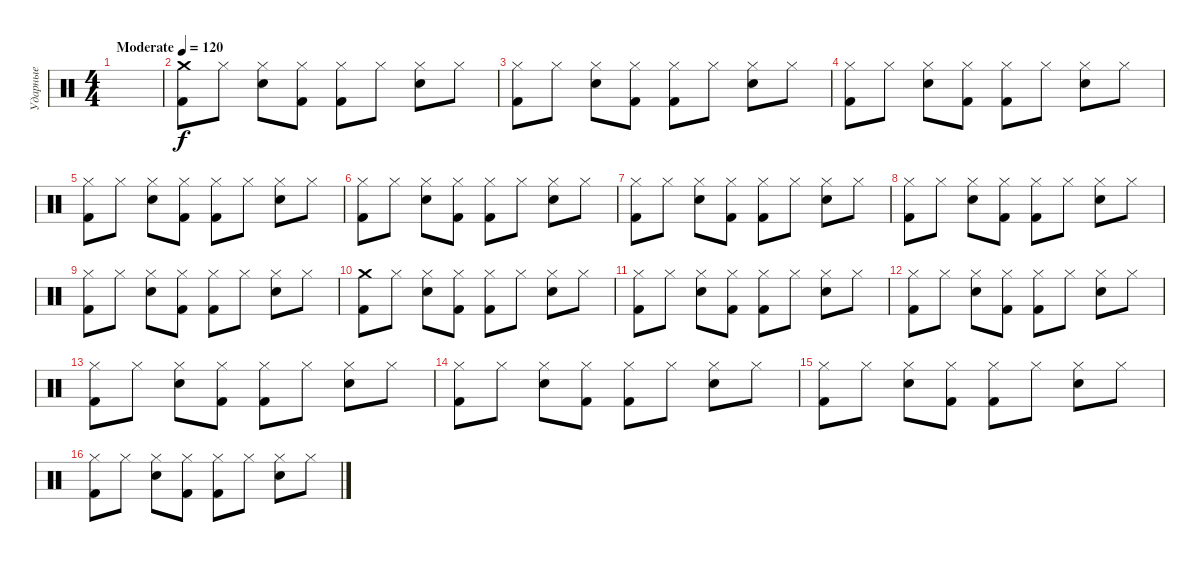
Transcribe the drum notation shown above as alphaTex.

\track ("Ударные" "Ударные") {instrument percussion}
\staff {score}
\articulation defaults
\ts (4 4)
\tempo (120 "Moderate")
\clef neutral
\ks c
|
("Crash medium (hit)" "Kick (hit) 2").8 "Hi-Hat (closed)".8 ("Hi-Hat (closed)" "Snare (hit) 2").8 ("Hi-Hat (closed)" "Kick (hit) 2").8 ("Hi-Hat (closed)" "Kick (hit) 2").8 "Hi-Hat (closed)".8 ("Hi-Hat (closed)" "Snare (hit) 2").8 "Hi-Hat (closed)".8 |
("Hi-Hat (closed)" "Kick (hit) 2").8 "Hi-Hat (closed)".8 ("Hi-Hat (closed)" "Snare (hit) 2").8 ("Hi-Hat (closed)" "Kick (hit) 2").8 ("Hi-Hat (closed)" "Kick (hit) 2").8 "Hi-Hat (closed)".8 ("Hi-Hat (closed)" "Snare (hit) 2").8 "Hi-Hat (closed)".8 |
("Hi-Hat (closed)" "Kick (hit) 2").8 "Hi-Hat (closed)".8 ("Hi-Hat (closed)" "Snare (hit) 2").8 ("Hi-Hat (closed)" "Kick (hit) 2").8 ("Hi-Hat (closed)" "Kick (hit) 2").8 "Hi-Hat (closed)".8 ("Hi-Hat (closed)" "Snare (hit) 2").8 "Hi-Hat (closed)".8 |
("Hi-Hat (closed)" "Kick (hit) 2").8 "Hi-Hat (closed)".8 ("Hi-Hat (closed)" "Snare (hit) 2").8 ("Hi-Hat (closed)" "Kick (hit) 2").8 ("Hi-Hat (closed)" "Kick (hit) 2").8 "Hi-Hat (closed)".8 ("Hi-Hat (closed)" "Snare (hit) 2").8 "Hi-Hat (closed)".8 |
("Hi-Hat (closed)" "Kick (hit) 2").8 "Hi-Hat (closed)".8 ("Hi-Hat (closed)" "Snare (hit) 2").8 ("Hi-Hat (closed)" "Kick (hit) 2").8 ("Hi-Hat (closed)" "Kick (hit) 2").8 "Hi-Hat (closed)".8 ("Hi-Hat (closed)" "Snare (hit) 2").8 "Hi-Hat (closed)".8 |
("Hi-Hat (closed)" "Kick (hit) 2").8 "Hi-Hat (closed)".8 ("Hi-Hat (closed)" "Snare (hit) 2").8 ("Hi-Hat (closed)" "Kick (hit) 2").8 ("Hi-Hat (closed)" "Kick (hit) 2").8 "Hi-Hat (closed)".8 ("Hi-Hat (closed)" "Snare (hit) 2").8 "Hi-Hat (closed)".8 |
("Hi-Hat (closed)" "Kick (hit) 2").8 "Hi-Hat (closed)".8 ("Hi-Hat (closed)" "Snare (hit) 2").8 ("Hi-Hat (closed)" "Kick (hit) 2").8 ("Hi-Hat (closed)" "Kick (hit) 2").8 "Hi-Hat (closed)".8 ("Hi-Hat (closed)" "Snare (hit) 2").8 "Hi-Hat (closed)".8 |
("Hi-Hat (closed)" "Kick (hit) 2").8 "Hi-Hat (closed)".8 ("Hi-Hat (closed)" "Snare (hit) 2").8 ("Hi-Hat (closed)" "Kick (hit) 2").8 ("Hi-Hat (closed)" "Kick (hit) 2").8 "Hi-Hat (closed)".8 ("Hi-Hat (closed)" "Snare (hit) 2").8 "Hi-Hat (closed)".8 |
("Crash medium (hit)" "Kick (hit) 2").8 "Hi-Hat (closed)".8 ("Hi-Hat (closed)" "Snare (hit) 2").8 ("Hi-Hat (closed)" "Kick (hit) 2").8 ("Hi-Hat (closed)" "Kick (hit) 2").8 "Hi-Hat (closed)".8 ("Hi-Hat (closed)" "Snare (hit) 2").8 "Hi-Hat (closed)".8 |
("Hi-Hat (closed)" "Kick (hit) 2").8 "Hi-Hat (closed)".8 ("Hi-Hat (closed)" "Snare (hit) 2").8 ("Hi-Hat (closed)" "Kick (hit) 2").8 ("Hi-Hat (closed)" "Kick (hit) 2").8 "Hi-Hat (closed)".8 ("Hi-Hat (closed)" "Snare (hit) 2").8 "Hi-Hat (closed)".8 |
("Hi-Hat (closed)" "Kick (hit) 2").8 "Hi-Hat (closed)".8 ("Hi-Hat (closed)" "Snare (hit) 2").8 ("Hi-Hat (closed)" "Kick (hit) 2").8 ("Hi-Hat (closed)" "Kick (hit) 2").8 "Hi-Hat (closed)".8 ("Hi-Hat (closed)" "Snare (hit) 2").8 "Hi-Hat (closed)".8 |
("Hi-Hat (closed)" "Kick (hit) 2").8 "Hi-Hat (closed)".8 ("Hi-Hat (closed)" "Snare (hit) 2").8 ("Hi-Hat (closed)" "Kick (hit) 2").8 ("Hi-Hat (closed)" "Kick (hit) 2").8 "Hi-Hat (closed)".8 ("Hi-Hat (closed)" "Snare (hit) 2").8 "Hi-Hat (closed)".8 |
("Hi-Hat (closed)" "Kick (hit) 2").8 "Hi-Hat (closed)".8 ("Hi-Hat (closed)" "Snare (hit) 2").8 ("Hi-Hat (closed)" "Kick (hit) 2").8 ("Hi-Hat (closed)" "Kick (hit) 2").8 "Hi-Hat (closed)".8 ("Hi-Hat (closed)" "Snare (hit) 2").8 "Hi-Hat (closed)".8 |
("Hi-Hat (closed)" "Kick (hit) 2").8 "Hi-Hat (closed)".8 ("Hi-Hat (closed)" "Snare (hit) 2").8 ("Hi-Hat (closed)" "Kick (hit) 2").8 ("Hi-Hat (closed)" "Kick (hit) 2").8 "Hi-Hat (closed)".8 ("Hi-Hat (closed)" "Snare (hit) 2").8 "Hi-Hat (closed)".8 |
("Hi-Hat (closed)" "Kick (hit) 2").8 "Hi-Hat (closed)".8 ("Hi-Hat (closed)" "Snare (hit) 2").8 ("Hi-Hat (closed)" "Kick (hit) 2").8 ("Hi-Hat (closed)" "Kick (hit) 2").8 "Hi-Hat (closed)".8 ("Hi-Hat (closed)" "Snare (hit) 2").8 "Hi-Hat (closed)".8
